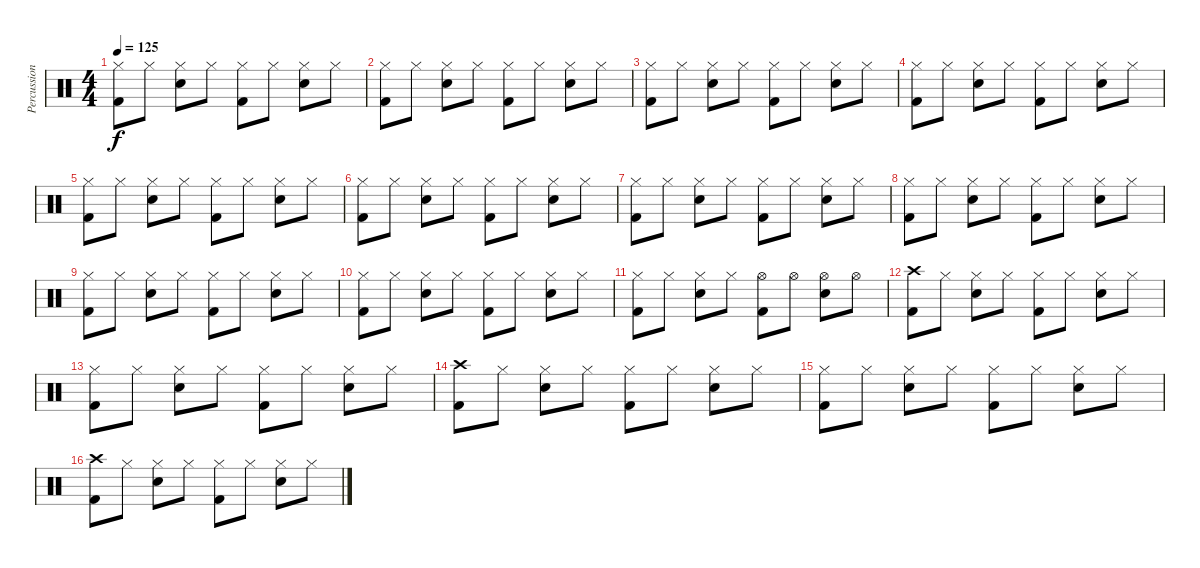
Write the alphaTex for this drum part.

\track ("Percussion" "Percussion") {instrument percussion}
\staff {score}
\articulation defaults
\ts (4 4)
\tempo 125
\clef neutral
\ks c
("Hi-Hat (closed)" "Kick (hit) 2").8{dy f} "Hi-Hat (closed)".8 ("Hi-Hat (closed)" "Snare (hit) 2").8 "Hi-Hat (closed)".8 ("Hi-Hat (closed)" "Kick (hit) 2").8 "Hi-Hat (closed)".8 ("Hi-Hat (closed)" "Snare (hit) 2").8 "Hi-Hat (closed)".8 |
("Hi-Hat (closed)" "Kick (hit) 2").8 "Hi-Hat (closed)".8 ("Hi-Hat (closed)" "Snare (hit) 2").8 "Hi-Hat (closed)".8 ("Hi-Hat (closed)" "Kick (hit) 2").8 "Hi-Hat (closed)".8 ("Hi-Hat (closed)" "Snare (hit) 2").8 "Hi-Hat (closed)".8 |
("Hi-Hat (closed)" "Kick (hit) 2").8 "Hi-Hat (closed)".8 ("Hi-Hat (closed)" "Snare (hit) 2").8 "Hi-Hat (closed)".8 ("Hi-Hat (closed)" "Kick (hit) 2").8 "Hi-Hat (closed)".8 ("Hi-Hat (closed)" "Snare (hit) 2").8 "Hi-Hat (closed)".8 |
("Hi-Hat (closed)" "Kick (hit) 2").8 "Hi-Hat (closed)".8 ("Hi-Hat (closed)" "Snare (hit) 2").8 "Hi-Hat (closed)".8 ("Hi-Hat (closed)" "Kick (hit) 2").8 "Hi-Hat (closed)".8 ("Hi-Hat (closed)" "Snare (hit) 2").8 "Hi-Hat (closed)".8 |
("Hi-Hat (closed)" "Kick (hit) 2").8 "Hi-Hat (closed)".8 ("Hi-Hat (closed)" "Snare (hit) 2").8 "Hi-Hat (closed)".8 ("Hi-Hat (closed)" "Kick (hit) 2").8 "Hi-Hat (closed)".8 ("Hi-Hat (closed)" "Snare (hit) 2").8 "Hi-Hat (closed)".8 |
("Hi-Hat (closed)" "Kick (hit) 2").8 "Hi-Hat (closed)".8 ("Hi-Hat (closed)" "Snare (hit) 2").8 "Hi-Hat (closed)".8 ("Hi-Hat (closed)" "Kick (hit) 2").8 "Hi-Hat (closed)".8 ("Hi-Hat (closed)" "Snare (hit) 2").8 "Hi-Hat (closed)".8 |
("Hi-Hat (closed)" "Kick (hit) 2").8 "Hi-Hat (closed)".8 ("Hi-Hat (closed)" "Snare (hit) 2").8 "Hi-Hat (closed)".8 ("Hi-Hat (closed)" "Kick (hit) 2").8 "Hi-Hat (closed)".8 ("Hi-Hat (closed)" "Snare (hit) 2").8 "Hi-Hat (closed)".8 |
("Hi-Hat (closed)" "Kick (hit) 2").8 "Hi-Hat (closed)".8 ("Hi-Hat (closed)" "Snare (hit) 2").8 "Hi-Hat (closed)".8 ("Hi-Hat (closed)" "Kick (hit) 2").8 "Hi-Hat (closed)".8 ("Hi-Hat (closed)" "Snare (hit) 2").8 "Hi-Hat (closed)".8 |
("Hi-Hat (closed)" "Kick (hit) 2").8 "Hi-Hat (closed)".8 ("Hi-Hat (closed)" "Snare (hit) 2").8 "Hi-Hat (closed)".8 ("Hi-Hat (closed)" "Kick (hit) 2").8 "Hi-Hat (closed)".8 ("Hi-Hat (closed)" "Snare (hit) 2").8 "Hi-Hat (closed)".8 |
("Hi-Hat (closed)" "Kick (hit) 2").8 "Hi-Hat (closed)".8 ("Hi-Hat (closed)" "Snare (hit) 2").8 "Hi-Hat (closed)".8 ("Hi-Hat (closed)" "Kick (hit) 2").8 "Hi-Hat (closed)".8 ("Hi-Hat (closed)" "Snare (hit) 2").8 "Hi-Hat (closed)".8 |
("Hi-Hat (closed)" "Kick (hit) 2").8 "Hi-Hat (closed)".8 ("Hi-Hat (closed)" "Snare (hit) 2").8 "Hi-Hat (closed)".8 ("Hi-Hat (open)" "Kick (hit) 2").8 "Hi-Hat (open)".8 ("Hi-Hat (open)" "Snare (hit) 2").8 "Hi-Hat (open)".8 |
("Crash high (hit)" "Kick (hit) 2").8 "Hi-Hat (closed)".8 ("Hi-Hat (closed)" "Snare (hit) 2").8 "Hi-Hat (closed)".8 ("Hi-Hat (closed)" "Kick (hit) 2").8 "Hi-Hat (closed)".8 ("Hi-Hat (closed)" "Snare (hit) 2").8 "Hi-Hat (closed)".8 |
("Hi-Hat (closed)" "Kick (hit) 2").8 "Hi-Hat (closed)".8 ("Hi-Hat (closed)" "Snare (hit) 2").8 "Hi-Hat (closed)".8 ("Hi-Hat (closed)" "Kick (hit) 2").8 "Hi-Hat (closed)".8 ("Hi-Hat (closed)" "Snare (hit) 2").8 "Hi-Hat (closed)".8 |
("Crash high (hit)" "Kick (hit) 2").8 "Hi-Hat (closed)".8 ("Hi-Hat (closed)" "Snare (hit) 2").8 "Hi-Hat (closed)".8 ("Hi-Hat (closed)" "Kick (hit) 2").8 "Hi-Hat (closed)".8 ("Hi-Hat (closed)" "Snare (hit) 2").8 "Hi-Hat (closed)".8 |
("Hi-Hat (closed)" "Kick (hit) 2").8 "Hi-Hat (closed)".8 ("Hi-Hat (closed)" "Snare (hit) 2").8 "Hi-Hat (closed)".8 ("Hi-Hat (closed)" "Kick (hit) 2").8 "Hi-Hat (closed)".8 ("Hi-Hat (closed)" "Snare (hit) 2").8 "Hi-Hat (closed)".8 |
("Crash high (hit)" "Kick (hit) 2").8 "Hi-Hat (closed)".8 ("Hi-Hat (closed)" "Snare (hit) 2").8 "Hi-Hat (closed)".8 ("Hi-Hat (closed)" "Kick (hit) 2").8 "Hi-Hat (closed)".8 ("Hi-Hat (closed)" "Snare (hit) 2").8 "Hi-Hat (closed)".8
